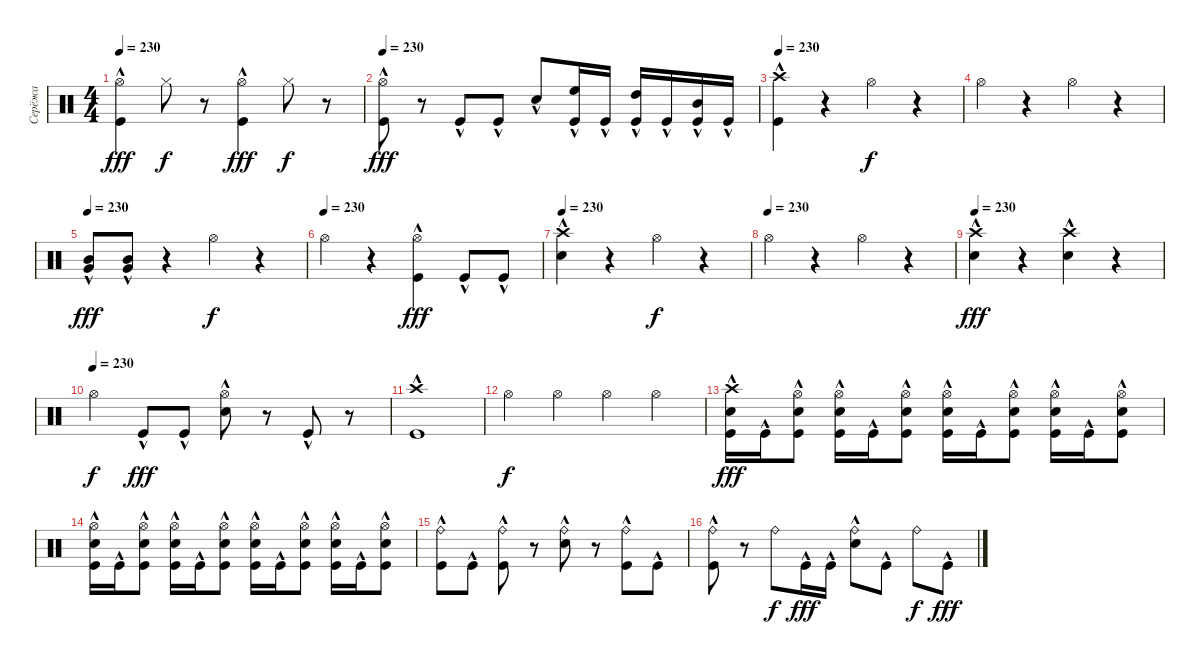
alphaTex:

\track ("Серёжа" "Серёжа") {instrument percussion}
\staff {score}
\articulation defaults
\ts (4 4)
\tempo 230
\clef neutral
\ks c
("Hi-Hat (open)" "Kick (hit)"{hac}).4{dy fff} "Hi-Hat (closed)".8{dy f} r.8 ("Hi-Hat (open)" "Kick (hit)"{hac}).4{dy fff} "Hi-Hat (closed)".8{dy f} r.8 |
\tempo 230
("Hi-Hat (open)" "Kick (hit)"{hac}).8{dy fff} r.8 "Kick (hit)"{hac}.8 "Kick (hit)"{hac}.8 "Snare (hit) 2"{hac}.8 ("High Floor Tom (hit)"{hac} "Kick (hit)"{hac}).16 "Kick (hit)"{hac}.16 ("High Tom (hit)"{hac} "Kick (hit)"{hac}).16 "Kick (hit)"{hac}.16 ("Mid Tom (hit)"{hac} "Kick (hit)"{hac}).16 "Kick (hit)"{hac}.16 |
\tempo 230
("Crash high (hit)"{hac} "Kick (hit)"{hac}).4 r.4 "Hi-Hat (open)".4{dy f} r.4 |
"Hi-Hat (open)".4 r.4 "Hi-Hat (open)".4 r.4 |
\tempo 230
("Very Low Tom (hit)"{hac} "Mid Tom (hit)"{hac}).8{dy fff} ("Very Low Tom (hit)"{hac} "Mid Tom (hit)"{hac}).8 r.4 "Hi-Hat (open)".4{dy f} r.4 |
\tempo (230)
"Hi-Hat (open)".4 r.4 ("Hi-Hat (open)" "Kick (hit)"{hac}).4{dy fff} "Kick (hit)"{hac}.8 "Kick (hit)"{hac}.8 |
\tempo 230
("Crash high (hit)"{hac} "Snare (hit) 2"{hac}).4 r.4 "Hi-Hat (open)".4{dy f} r.4 |
\tempo (230)
"Hi-Hat (open)".4 r.4 "Hi-Hat (open)".4 r.4 |
\tempo 230
("Crash high (hit)" "Snare (hit) 2"{hac}).4{dy fff} r.4 ("Crash high (hit)" "Snare (hit) 2"{hac}).4 r.4 |
\tempo (230)
"Hi-Hat (open)".4{dy f} "Kick (hit)"{hac}.8{dy fff} "Kick (hit)"{hac}.8 ("Hi-Hat (open)" "Snare (hit) 2"{hac}).8 r.8 "Kick (hit)"{hac}.8 r.8 |
("Crash high (hit)"{hac} "Kick (hit)"{hac}).1 |
"Hi-Hat (open)".4{dy f} "Hi-Hat (open)".4 "Hi-Hat (open)".4 "Hi-Hat (open)".4 |
("Crash high (hit)"{hac} "Snare (hit) 2"{hac} "Kick (hit)"{hac}).16{dy fff} "Kick (hit)"{hac}.16 ("Hi-Hat (open)" "Snare (hit) 2"{hac} "Kick (hit)"{hac}).8 ("Hi-Hat (open)" "Snare (hit) 2"{hac} "Kick (hit)"{hac}).16 "Kick (hit)"{hac}.16 ("Hi-Hat (open)" "Snare (hit) 2"{hac} "Kick (hit)"{hac}).8 ("Hi-Hat (open)" "Snare (hit) 2"{hac} "Kick (hit)"{hac}).16 "Kick (hit)"{hac}.16 ("Hi-Hat (open)" "Snare (hit) 2"{hac} "Kick (hit)"{hac}).8 ("Hi-Hat (open)" "Snare (hit) 2"{hac} "Kick (hit)"{hac}).16 "Kick (hit)"{hac}.16 ("Hi-Hat (open)" "Snare (hit) 2"{hac} "Kick (hit)"{hac}).8 |
("Hi-Hat (open)" "Snare (hit) 2"{hac} "Kick (hit)"{hac}).16 "Kick (hit)"{hac}.16 ("Hi-Hat (open)" "Snare (hit) 2"{hac} "Kick (hit)"{hac}).8 ("Hi-Hat (open)" "Snare (hit) 2"{hac} "Kick (hit)"{hac}).16 "Kick (hit)"{hac}.16 ("Hi-Hat (open)" "Snare (hit) 2"{hac} "Kick (hit)"{hac}).8 ("Hi-Hat (open)" "Snare (hit) 2"{hac} "Kick (hit)"{hac}).16 "Kick (hit)"{hac}.16 ("Hi-Hat (open)" "Snare (hit) 2"{hac} "Kick (hit)"{hac}).8 ("Hi-Hat (open)" "Snare (hit) 2"{hac} "Kick (hit)"{hac}).16 "Kick (hit)"{hac}.16 ("Hi-Hat (open)" "Snare (hit) 2"{hac} "Kick (hit)"{hac}).8 |
("Ride (bell)" "Kick (hit)"{hac}).8 "Kick (hit)"{hac}.8 ("Ride (bell)" "Kick (hit)"{hac}).8 r.8 ("Ride (bell)" "Snare (hit) 2"{hac}).8 r.8 ("Ride (bell)" "Kick (hit)"{hac}).8 "Kick (hit)"{hac}.8 |
("Ride (bell)" "Kick (hit)"{hac}).8 r.8 "Ride (bell)".8{dy f} "Kick (hit)"{hac}.16{dy fff} "Kick (hit)"{hac}.16 ("Ride (bell)" "Snare (hit) 2"{hac}).8 "Kick (hit)"{hac}.8 "Ride (bell)".8{dy f} "Kick (hit)"{hac}.8{dy fff}
